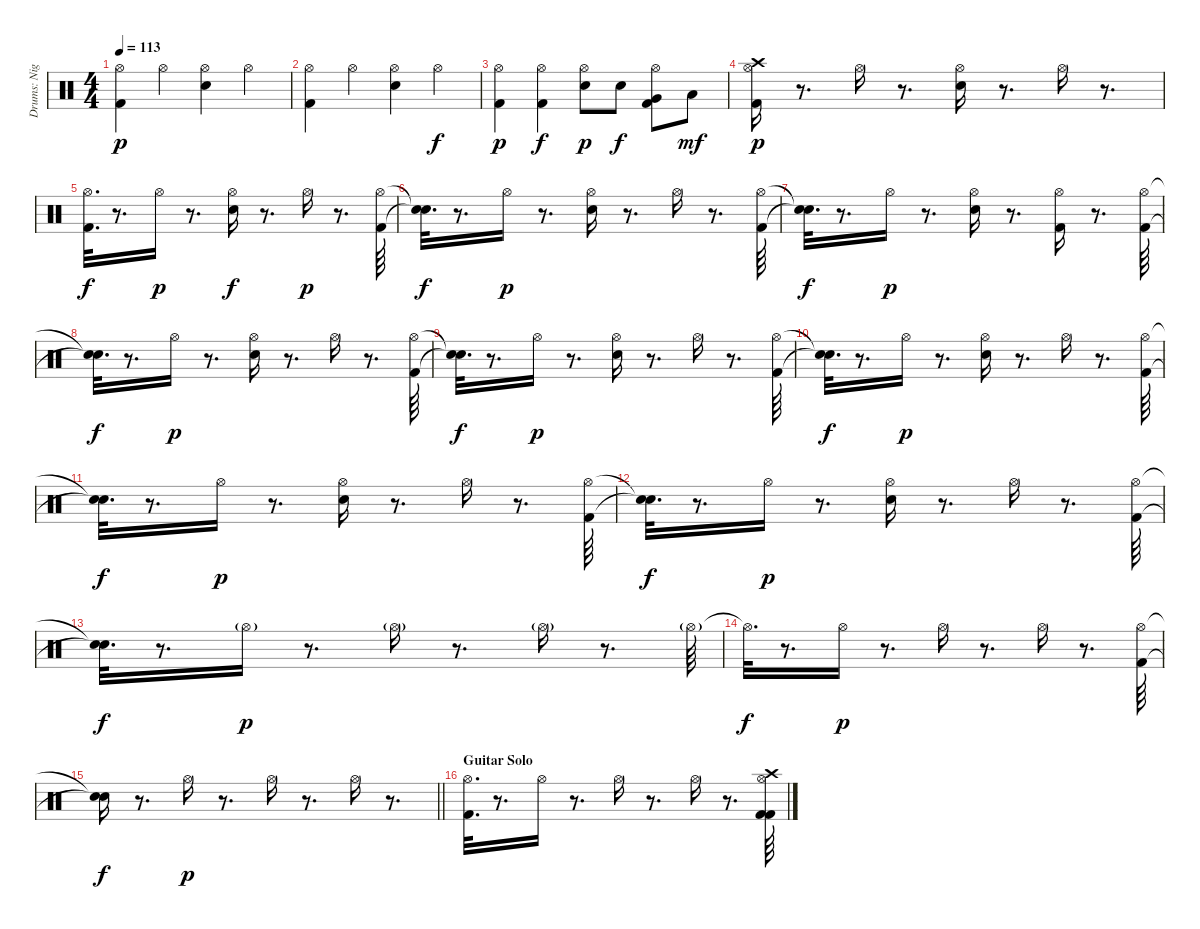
\track ("Drums: Nigel Olsson" "Drums: Nig") {instrument percussion}
\staff {score}
\articulation defaults
\ts (4 4)
\tempo 113
\clef neutral
\ks c
("Hi-Hat (open)" "Kick (hit) 2").4{dy p} "Hi-Hat (open)".4 ("Hi-Hat (open)" "Snare (hit) 2").4 "Hi-Hat (open)".4 |
("Kick (hit) 2" "Hi-Hat (open)").4 "Hi-Hat (open)".4 ("Snare (hit) 2" "Hi-Hat (open)").4 "Hi-Hat (open)".4{dy f} |
("Kick (hit) 2" "Hi-Hat (open)").4{dy p} ("Kick (hit) 2" "Hi-Hat (open)").4{dy f} ("Snare (hit) 2" "Hi-Hat (open)").8{dy p} "Snare (hit) 2".8{dy f} ("Kick (hit) 2" "Hi-Hat (open)" "Very Low Tom (hit)").8 "Low Floor Tom (hit)".8{dy mf} |
("Crash high (hit)" "Hi-Hat (open)" "Kick (hit) 2").16{dy p} r.8{d} "Hi-Hat (open)".16 r.8{d} ("Hi-Hat (open)" "Snare (hit) 2").16 r.8{d} "Hi-Hat (open)".16 r.8{d} |
("Kick (hit) 2" "Hi-Hat (open)").32{d dy f} r.8{d} "Hi-Hat (open)".16{dy p} r.8{d} ("Snare (hit) 2" "Hi-Hat (open)").16{dy f} r.8{d} "Hi-Hat (open)".16{dy p} r.8{d} ("Kick (hit) 2" "Hi-Hat (open)").64 |
("Snare (hit)"{t} "Snare (hit)"{t}).32{d dy f} r.8{d} "Hi-Hat (open)".16{dy p} r.8{d} ("Snare (hit) 2" "Hi-Hat (open)").16 r.8{d} "Hi-Hat (open)".16 r.8{d} ("Kick (hit) 2" "Hi-Hat (open)").64 |
("Snare (hit)"{t} "Snare (hit)"{t}).32{d dy f} r.8{d} "Hi-Hat (open)".16{dy p} r.8{d} ("Snare (hit) 2" "Hi-Hat (open)").16 r.8{d} ("Kick (hit) 2" "Hi-Hat (open)").16 r.8{d} ("Kick (hit) 2" "Hi-Hat (open)").64 |
("Snare (hit)"{t} "Snare (hit)"{t}).32{d dy f} r.8{d} "Hi-Hat (open)".16{dy p} r.8{d} ("Snare (hit) 2" "Hi-Hat (open)").16 r.8{d} "Hi-Hat (open)".16 r.8{d} ("Kick (hit) 2" "Hi-Hat (open)").64 |
("Snare (hit)"{t} "Snare (hit)"{t}).32{d dy f} r.8{d} "Hi-Hat (open)".16{dy p} r.8{d} ("Snare (hit) 2" "Hi-Hat (open)").16 r.8{d} "Hi-Hat (open)".16 r.8{d} ("Kick (hit) 2" "Hi-Hat (open)").64 |
("Snare (hit)"{t} "Snare (hit)"{t}).32{d dy f} r.8{d} "Hi-Hat (open)".16{dy p} r.8{d} ("Snare (hit) 2" "Hi-Hat (open)").16 r.8{d} "Hi-Hat (open)".16 r.8{d} ("Hi-Hat (open)" "Kick (hit) 2").64 |
("Snare (hit)"{t} "Snare (hit)"{t}).32{d dy f} r.8{d} "Hi-Hat (open)".16{dy p} r.8{d} ("Snare (hit) 2" "Hi-Hat (open)").16 r.8{d} "Hi-Hat (open)".16 r.8{d} ("Hi-Hat (open)" "Kick (hit) 2").64 |
("Snare (hit)"{t} "Snare (hit)"{t}).32{d dy f} r.8{d} "Hi-Hat (open)".16{dy p} r.8{d} ("Snare (hit) 2" "Hi-Hat (open)").16 r.8{d} "Hi-Hat (open)".16 r.8{d} ("Hi-Hat (open)" "Kick (hit) 2").64 |
("Snare (hit)"{t} "Snare (hit)"{t}).32{d dy f} r.8{d} "Hi-Hat (open)"{g}.16{dy p} r.8{d} "Hi-Hat (open)"{g}.16 r.8{d} "Hi-Hat (open)"{g}.16 r.8{d} "Hi-Hat (open)"{g}.64 |
"Hi-Hat (open)"{t}.32{d dy f} r.8{d} "Hi-Hat (open)".16{dy p} r.8{d} "Hi-Hat (open)".16 r.8{d} "Hi-Hat (open)".16 r.8{d} ("Hi-Hat (open)" "Kick (hit) 2").64 |
\barLineRight lightlight
("Snare (hit)"{t} "Snare (hit)"{t}).16{dy f} r.8{d} "Hi-Hat (open)".16{dy p} r.8{d} "Hi-Hat (open)".16 r.8{d} "Hi-Hat (open)".16 r.8{d} |
\section ("" "Guitar Solo")
("Hi-Hat (open)" "Kick (hit) 2").32{d} r.8{d} "Hi-Hat (open)".16 r.8{d} "Hi-Hat (open)".16 r.8{d} "Hi-Hat (open)".16 r.8{d} ("Kick (hit) 2" "Hi-Hat (open)" "Crash high (hit)" "Kick (hit) 2").64
